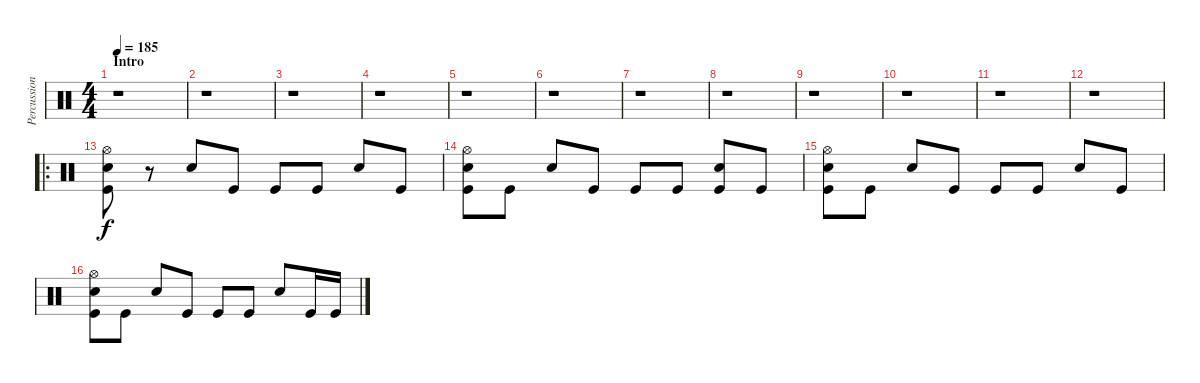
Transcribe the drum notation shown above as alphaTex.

\track ("Percussions" "Percussion") {instrument percussion}
\staff {score}
\articulation defaults
\ts (4 4)
\section ("" "Intro")
\tempo 185
\clef neutral
\ks c
r.1{dy f} |
r.1 |
r.1 |
r.1 |
r.1 |
r.1 |
r.1 |
r.1 |
r.1 |
r.1 |
r.1 |
r.1 |
\ro
("Hi-Hat (open)" "Snare (hit) 2" "Kick (hit)").8 r.8 "Snare (hit) 2".8 "Kick (hit)".8 "Kick (hit)".8 "Kick (hit)".8 "Snare (hit) 2".8 "Kick (hit)".8 |
("Hi-Hat (open)" "Snare (hit) 2" "Kick (hit)").8 "Kick (hit)".8 "Snare (hit) 2".8 "Kick (hit)".8 "Kick (hit)".8 "Kick (hit)".8 ("Snare (hit) 2" "Kick (hit)").8 "Kick (hit)".8 |
("Hi-Hat (open)" "Snare (hit) 2" "Kick (hit)").8 "Kick (hit)".8 "Snare (hit) 2".8 "Kick (hit)".8 "Kick (hit)".8 "Kick (hit)".8 "Snare (hit) 2".8 "Kick (hit)".8 |
("Hi-Hat (open)" "Snare (hit) 2" "Kick (hit)").8 "Kick (hit)".8 "Snare (hit) 2".8 "Kick (hit)".8 "Kick (hit)".8 "Kick (hit)".8 "Snare (hit) 2".8 "Kick (hit)".16 "Kick (hit)".16
